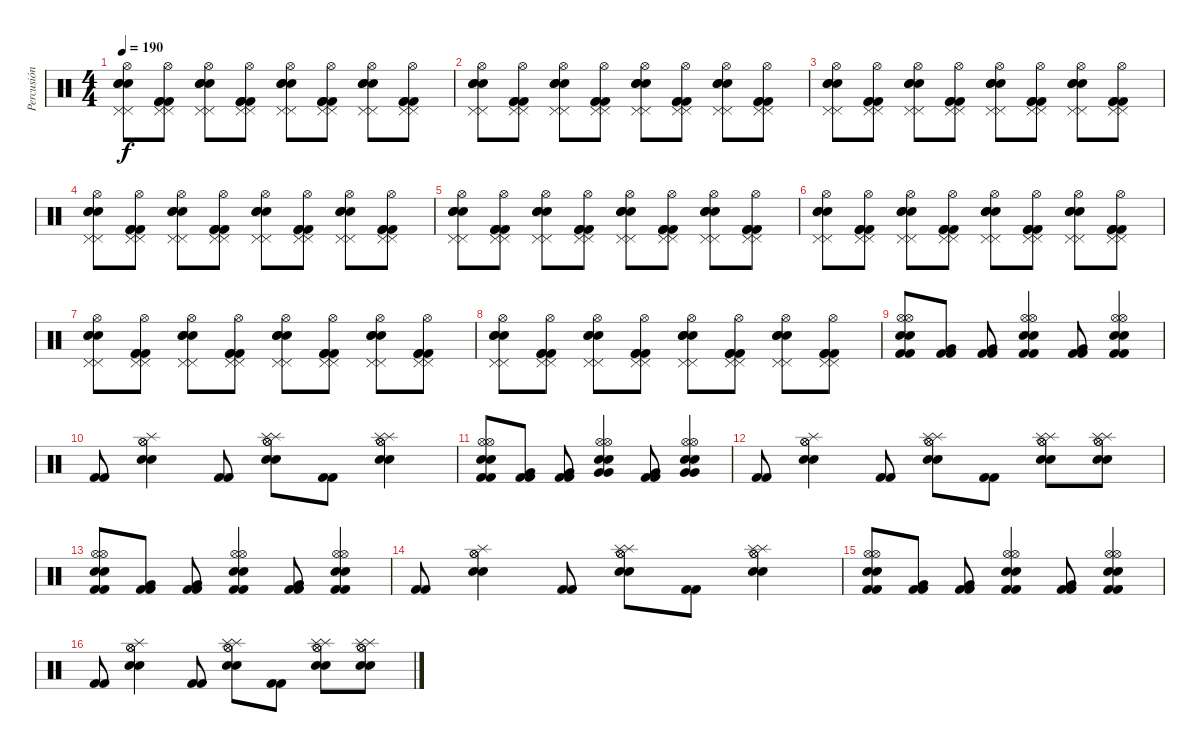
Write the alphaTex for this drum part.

\track ("Percusión" "Percusión") {instrument percussion}
\staff {score}
\articulation defaults
\ts (4 4)
\tempo 190
\clef neutral
\ks c
("Snare (hit) 2" "Snare (hit) 2" "Snare (hit) 2" "Pedal Hi-Hat (hit)" "Hi-Hat (open)" "Pedal Hi-Hat (hit)").8{dy f} ("Kick (hit) 2" "Kick (hit) 2" "Kick (hit) 2" "Pedal Hi-Hat (hit)" "Hi-Hat (open)" "Pedal Hi-Hat (hit)").8 ("Snare (hit) 2" "Snare (hit) 2" "Snare (hit) 2" "Pedal Hi-Hat (hit)" "Hi-Hat (open)" "Pedal Hi-Hat (hit)").8 ("Kick (hit) 2" "Kick (hit) 2" "Kick (hit) 2" "Pedal Hi-Hat (hit)" "Hi-Hat (open)" "Pedal Hi-Hat (hit)").8 ("Snare (hit) 2" "Snare (hit) 2" "Snare (hit) 2" "Pedal Hi-Hat (hit)" "Hi-Hat (open)" "Pedal Hi-Hat (hit)").8 ("Kick (hit) 2" "Kick (hit) 2" "Kick (hit) 2" "Pedal Hi-Hat (hit)" "Hi-Hat (open)" "Pedal Hi-Hat (hit)").8 ("Snare (hit) 2" "Snare (hit) 2" "Snare (hit) 2" "Pedal Hi-Hat (hit)" "Hi-Hat (open)" "Pedal Hi-Hat (hit)").8 ("Kick (hit) 2" "Kick (hit) 2" "Kick (hit) 2" "Pedal Hi-Hat (hit)" "Hi-Hat (open)" "Pedal Hi-Hat (hit)").8 |
("Snare (hit) 2" "Snare (hit) 2" "Snare (hit) 2" "Pedal Hi-Hat (hit)" "Hi-Hat (open)" "Pedal Hi-Hat (hit)").8 ("Kick (hit) 2" "Kick (hit) 2" "Kick (hit) 2" "Pedal Hi-Hat (hit)" "Hi-Hat (open)" "Pedal Hi-Hat (hit)").8 ("Snare (hit) 2" "Snare (hit) 2" "Snare (hit) 2" "Pedal Hi-Hat (hit)" "Hi-Hat (open)" "Pedal Hi-Hat (hit)").8 ("Kick (hit) 2" "Kick (hit) 2" "Kick (hit) 2" "Pedal Hi-Hat (hit)" "Hi-Hat (open)" "Pedal Hi-Hat (hit)").8 ("Snare (hit) 2" "Snare (hit) 2" "Snare (hit) 2" "Pedal Hi-Hat (hit)" "Hi-Hat (open)" "Pedal Hi-Hat (hit)").8 ("Kick (hit) 2" "Kick (hit) 2" "Kick (hit) 2" "Pedal Hi-Hat (hit)" "Hi-Hat (open)" "Pedal Hi-Hat (hit)").8 ("Snare (hit) 2" "Snare (hit) 2" "Snare (hit) 2" "Pedal Hi-Hat (hit)" "Hi-Hat (open)" "Pedal Hi-Hat (hit)").8 ("Kick (hit) 2" "Kick (hit) 2" "Kick (hit) 2" "Pedal Hi-Hat (hit)" "Hi-Hat (open)" "Pedal Hi-Hat (hit)").8 |
("Snare (hit) 2" "Snare (hit) 2" "Snare (hit) 2" "Pedal Hi-Hat (hit)" "Hi-Hat (open)" "Pedal Hi-Hat (hit)").8 ("Kick (hit) 2" "Kick (hit) 2" "Kick (hit) 2" "Pedal Hi-Hat (hit)" "Hi-Hat (open)" "Pedal Hi-Hat (hit)").8 ("Snare (hit) 2" "Snare (hit) 2" "Snare (hit) 2" "Pedal Hi-Hat (hit)" "Hi-Hat (open)" "Pedal Hi-Hat (hit)").8 ("Kick (hit) 2" "Kick (hit) 2" "Kick (hit) 2" "Pedal Hi-Hat (hit)" "Hi-Hat (open)" "Pedal Hi-Hat (hit)").8 ("Snare (hit) 2" "Snare (hit) 2" "Snare (hit) 2" "Pedal Hi-Hat (hit)" "Hi-Hat (open)" "Pedal Hi-Hat (hit)").8 ("Kick (hit) 2" "Kick (hit) 2" "Kick (hit) 2" "Pedal Hi-Hat (hit)" "Hi-Hat (open)" "Pedal Hi-Hat (hit)").8 ("Snare (hit) 2" "Snare (hit) 2" "Snare (hit) 2" "Pedal Hi-Hat (hit)" "Hi-Hat (open)" "Pedal Hi-Hat (hit)").8 ("Kick (hit) 2" "Kick (hit) 2" "Kick (hit) 2" "Pedal Hi-Hat (hit)" "Hi-Hat (open)" "Pedal Hi-Hat (hit)").8 |
("Snare (hit) 2" "Snare (hit) 2" "Snare (hit) 2" "Pedal Hi-Hat (hit)" "Hi-Hat (open)" "Pedal Hi-Hat (hit)").8 ("Kick (hit) 2" "Kick (hit) 2" "Kick (hit) 2" "Pedal Hi-Hat (hit)" "Hi-Hat (open)" "Pedal Hi-Hat (hit)").8 ("Snare (hit) 2" "Snare (hit) 2" "Snare (hit) 2" "Pedal Hi-Hat (hit)" "Hi-Hat (open)" "Pedal Hi-Hat (hit)").8 ("Kick (hit) 2" "Kick (hit) 2" "Kick (hit) 2" "Pedal Hi-Hat (hit)" "Hi-Hat (open)" "Pedal Hi-Hat (hit)").8 ("Snare (hit) 2" "Snare (hit) 2" "Snare (hit) 2" "Pedal Hi-Hat (hit)" "Hi-Hat (open)" "Pedal Hi-Hat (hit)").8 ("Kick (hit) 2" "Kick (hit) 2" "Kick (hit) 2" "Pedal Hi-Hat (hit)" "Hi-Hat (open)" "Pedal Hi-Hat (hit)").8 ("Snare (hit) 2" "Snare (hit) 2" "Snare (hit) 2" "Pedal Hi-Hat (hit)" "Hi-Hat (open)" "Pedal Hi-Hat (hit)").8 ("Kick (hit) 2" "Kick (hit) 2" "Kick (hit) 2" "Pedal Hi-Hat (hit)" "Hi-Hat (open)" "Pedal Hi-Hat (hit)").8 |
("Snare (hit) 2" "Snare (hit) 2" "Snare (hit) 2" "Pedal Hi-Hat (hit)" "Hi-Hat (open)" "Pedal Hi-Hat (hit)").8 ("Kick (hit) 2" "Kick (hit) 2" "Kick (hit) 2" "Pedal Hi-Hat (hit)" "Hi-Hat (open)" "Pedal Hi-Hat (hit)").8 ("Snare (hit) 2" "Snare (hit) 2" "Snare (hit) 2" "Pedal Hi-Hat (hit)" "Hi-Hat (open)" "Pedal Hi-Hat (hit)").8 ("Kick (hit) 2" "Kick (hit) 2" "Kick (hit) 2" "Pedal Hi-Hat (hit)" "Hi-Hat (open)" "Pedal Hi-Hat (hit)").8 ("Snare (hit) 2" "Snare (hit) 2" "Snare (hit) 2" "Pedal Hi-Hat (hit)" "Hi-Hat (open)" "Pedal Hi-Hat (hit)").8 ("Kick (hit) 2" "Kick (hit) 2" "Kick (hit) 2" "Pedal Hi-Hat (hit)" "Hi-Hat (open)" "Pedal Hi-Hat (hit)").8 ("Snare (hit) 2" "Snare (hit) 2" "Snare (hit) 2" "Pedal Hi-Hat (hit)" "Hi-Hat (open)" "Pedal Hi-Hat (hit)").8 ("Kick (hit) 2" "Kick (hit) 2" "Kick (hit) 2" "Pedal Hi-Hat (hit)" "Hi-Hat (open)" "Pedal Hi-Hat (hit)").8 |
("Snare (hit) 2" "Snare (hit) 2" "Snare (hit) 2" "Pedal Hi-Hat (hit)" "Hi-Hat (open)" "Pedal Hi-Hat (hit)").8 ("Kick (hit) 2" "Kick (hit) 2" "Kick (hit) 2" "Pedal Hi-Hat (hit)" "Hi-Hat (open)" "Pedal Hi-Hat (hit)").8 ("Snare (hit) 2" "Snare (hit) 2" "Snare (hit) 2" "Pedal Hi-Hat (hit)" "Hi-Hat (open)" "Pedal Hi-Hat (hit)").8 ("Kick (hit) 2" "Kick (hit) 2" "Kick (hit) 2" "Pedal Hi-Hat (hit)" "Hi-Hat (open)" "Pedal Hi-Hat (hit)").8 ("Snare (hit) 2" "Snare (hit) 2" "Snare (hit) 2" "Pedal Hi-Hat (hit)" "Hi-Hat (open)" "Pedal Hi-Hat (hit)").8 ("Kick (hit) 2" "Kick (hit) 2" "Kick (hit) 2" "Pedal Hi-Hat (hit)" "Hi-Hat (open)" "Pedal Hi-Hat (hit)").8 ("Snare (hit) 2" "Snare (hit) 2" "Snare (hit) 2" "Pedal Hi-Hat (hit)" "Hi-Hat (open)" "Pedal Hi-Hat (hit)").8 ("Kick (hit) 2" "Kick (hit) 2" "Kick (hit) 2" "Pedal Hi-Hat (hit)" "Hi-Hat (open)" "Pedal Hi-Hat (hit)").8 |
("Snare (hit) 2" "Snare (hit) 2" "Snare (hit) 2" "Pedal Hi-Hat (hit)" "Hi-Hat (open)" "Pedal Hi-Hat (hit)").8 ("Kick (hit) 2" "Kick (hit) 2" "Kick (hit) 2" "Pedal Hi-Hat (hit)" "Hi-Hat (open)" "Pedal Hi-Hat (hit)").8 ("Snare (hit) 2" "Snare (hit) 2" "Snare (hit) 2" "Pedal Hi-Hat (hit)" "Hi-Hat (open)" "Pedal Hi-Hat (hit)").8 ("Kick (hit) 2" "Kick (hit) 2" "Kick (hit) 2" "Pedal Hi-Hat (hit)" "Hi-Hat (open)" "Pedal Hi-Hat (hit)").8 ("Snare (hit) 2" "Snare (hit) 2" "Snare (hit) 2" "Pedal Hi-Hat (hit)" "Hi-Hat (open)" "Pedal Hi-Hat (hit)").8 ("Kick (hit) 2" "Kick (hit) 2" "Kick (hit) 2" "Pedal Hi-Hat (hit)" "Hi-Hat (open)" "Pedal Hi-Hat (hit)").8 ("Snare (hit) 2" "Snare (hit) 2" "Snare (hit) 2" "Pedal Hi-Hat (hit)" "Hi-Hat (open)" "Pedal Hi-Hat (hit)").8 ("Kick (hit) 2" "Kick (hit) 2" "Kick (hit) 2" "Pedal Hi-Hat (hit)" "Hi-Hat (open)" "Pedal Hi-Hat (hit)").8 |
("Snare (hit) 2" "Snare (hit) 2" "Snare (hit) 2" "Pedal Hi-Hat (hit)" "Hi-Hat (open)" "Pedal Hi-Hat (hit)").8 ("Kick (hit) 2" "Kick (hit) 2" "Kick (hit) 2" "Pedal Hi-Hat (hit)" "Hi-Hat (open)" "Pedal Hi-Hat (hit)").8 ("Snare (hit) 2" "Snare (hit) 2" "Snare (hit) 2" "Pedal Hi-Hat (hit)" "Hi-Hat (open)" "Pedal Hi-Hat (hit)").8 ("Kick (hit) 2" "Kick (hit) 2" "Kick (hit) 2" "Pedal Hi-Hat (hit)" "Hi-Hat (open)" "Pedal Hi-Hat (hit)").8 ("Snare (hit) 2" "Snare (hit) 2" "Snare (hit) 2" "Pedal Hi-Hat (hit)" "Hi-Hat (open)" "Pedal Hi-Hat (hit)").8 ("Kick (hit) 2" "Kick (hit) 2" "Kick (hit) 2" "Pedal Hi-Hat (hit)" "Hi-Hat (open)" "Pedal Hi-Hat (hit)").8 ("Snare (hit) 2" "Snare (hit) 2" "Snare (hit) 2" "Pedal Hi-Hat (hit)" "Hi-Hat (open)" "Pedal Hi-Hat (hit)").8 ("Kick (hit) 2" "Kick (hit) 2" "Kick (hit) 2" "Pedal Hi-Hat (hit)" "Hi-Hat (open)" "Pedal Hi-Hat (hit)").8 |
("Kick (hit) 2" "Kick (hit) 2" "Snare (hit) 2" "Snare (hit) 2" "Hi-Hat (open)" "Hi-Hat (open)").8 ("Kick (hit) 2" "Kick (hit) 2" "Very Low Tom (hit)").8 ("Kick (hit) 2" "Kick (hit) 2" "Very Low Tom (hit)").8 ("Kick (hit) 2" "Kick (hit) 2" "Snare (hit) 2" "Snare (hit) 2" "Hi-Hat (open)" "Hi-Hat (open)").4 ("Kick (hit) 2" "Kick (hit) 2" "Very Low Tom (hit)").8 ("Kick (hit) 2" "Kick (hit) 2" "Snare (hit) 2" "Snare (hit) 2" "Hi-Hat (open)" "Hi-Hat (open)").4 |
("Kick (hit) 2" "Kick (hit) 2").8 ("Snare (hit) 2" "Snare (hit) 2" "Hi-Hat (open)" "Hi-Hat (open)" "Splash (hit)").4 ("Kick (hit) 2" "Kick (hit) 2").8 ("Snare (hit) 2" "Snare (hit) 2" "Hi-Hat (open)" "Hi-Hat (open)" "Splash (hit)" "Splash (hit)").8 ("Kick (hit) 2" "Kick (hit) 2").8 ("Snare (hit) 2" "Snare (hit) 2" "Hi-Hat (open)" "Hi-Hat (open)" "Splash (hit)" "Splash (hit)").4 |
("Kick (hit) 2" "Kick (hit) 2" "Snare (hit) 2" "Snare (hit) 2" "Hi-Hat (open)" "Hi-Hat (open)").8 ("Kick (hit) 2" "Kick (hit) 2" "Very Low Tom (hit)").8 ("Kick (hit) 2" "Kick (hit) 2" "Very Low Tom (hit)").8 ("Very Low Tom (hit)" "Very Low Tom (hit)" "Snare (hit) 2" "Snare (hit) 2" "Hi-Hat (open)" "Hi-Hat (open)").4 ("Kick (hit) 2" "Kick (hit) 2" "Very Low Tom (hit)").8 ("Very Low Tom (hit)" "Very Low Tom (hit)" "Snare (hit) 2" "Snare (hit) 2" "Hi-Hat (open)" "Hi-Hat (open)").4 |
("Kick (hit) 2" "Kick (hit) 2").8 ("Snare (hit) 2" "Snare (hit) 2" "Hi-Hat (open)" "Hi-Hat (open)" "Splash (hit)").4 ("Kick (hit) 2" "Kick (hit) 2").8 ("Snare (hit) 2" "Snare (hit) 2" "Hi-Hat (open)" "Hi-Hat (open)" "Splash (hit)" "Splash (hit)").8 ("Kick (hit) 2" "Kick (hit) 2").8 ("Snare (hit) 2" "Snare (hit) 2" "Hi-Hat (open)" "Hi-Hat (open)" "Splash (hit)" "Splash (hit)").8 ("Snare (hit) 2" "Snare (hit) 2" "Hi-Hat (open)" "Hi-Hat (open)" "Splash (hit)" "Splash (hit)").8 |
("Kick (hit) 2" "Kick (hit) 2" "Snare (hit) 2" "Snare (hit) 2" "Hi-Hat (open)" "Hi-Hat (open)").8 ("Kick (hit) 2" "Kick (hit) 2" "Very Low Tom (hit)").8 ("Kick (hit) 2" "Kick (hit) 2" "Very Low Tom (hit)").8 ("Kick (hit) 2" "Kick (hit) 2" "Snare (hit) 2" "Snare (hit) 2" "Hi-Hat (open)" "Hi-Hat (open)").4 ("Kick (hit) 2" "Kick (hit) 2" "Very Low Tom (hit)").8 ("Kick (hit) 2" "Kick (hit) 2" "Snare (hit) 2" "Snare (hit) 2" "Hi-Hat (open)" "Hi-Hat (open)").4 |
("Kick (hit) 2" "Kick (hit) 2").8 ("Snare (hit) 2" "Snare (hit) 2" "Hi-Hat (open)" "Hi-Hat (open)" "Splash (hit)").4 ("Kick (hit) 2" "Kick (hit) 2").8 ("Snare (hit) 2" "Snare (hit) 2" "Hi-Hat (open)" "Hi-Hat (open)" "Splash (hit)" "Splash (hit)").8 ("Kick (hit) 2" "Kick (hit) 2").8 ("Snare (hit) 2" "Snare (hit) 2" "Hi-Hat (open)" "Hi-Hat (open)" "Splash (hit)" "Splash (hit)").4 |
("Kick (hit) 2" "Kick (hit) 2" "Snare (hit) 2" "Snare (hit) 2" "Hi-Hat (open)" "Hi-Hat (open)").8 ("Kick (hit) 2" "Kick (hit) 2" "Very Low Tom (hit)").8 ("Kick (hit) 2" "Kick (hit) 2" "Very Low Tom (hit)").8 ("Kick (hit) 2" "Kick (hit) 2" "Snare (hit) 2" "Snare (hit) 2" "Hi-Hat (open)" "Hi-Hat (open)").4 ("Kick (hit) 2" "Kick (hit) 2" "Very Low Tom (hit)").8 ("Kick (hit) 2" "Kick (hit) 2" "Snare (hit) 2" "Snare (hit) 2" "Hi-Hat (open)" "Hi-Hat (open)").4 |
("Kick (hit) 2" "Kick (hit) 2").8 ("Snare (hit) 2" "Snare (hit) 2" "Hi-Hat (open)" "Hi-Hat (open)" "Splash (hit)").4 ("Kick (hit) 2" "Kick (hit) 2").8 ("Snare (hit) 2" "Snare (hit) 2" "Hi-Hat (open)" "Hi-Hat (open)" "Splash (hit)" "Splash (hit)").8 ("Kick (hit) 2" "Kick (hit) 2").8 ("Snare (hit) 2" "Snare (hit) 2" "Hi-Hat (open)" "Hi-Hat (open)" "Splash (hit)" "Splash (hit)").8 ("Snare (hit) 2" "Snare (hit) 2" "Hi-Hat (open)" "Hi-Hat (open)" "Splash (hit)" "Splash (hit)").8
